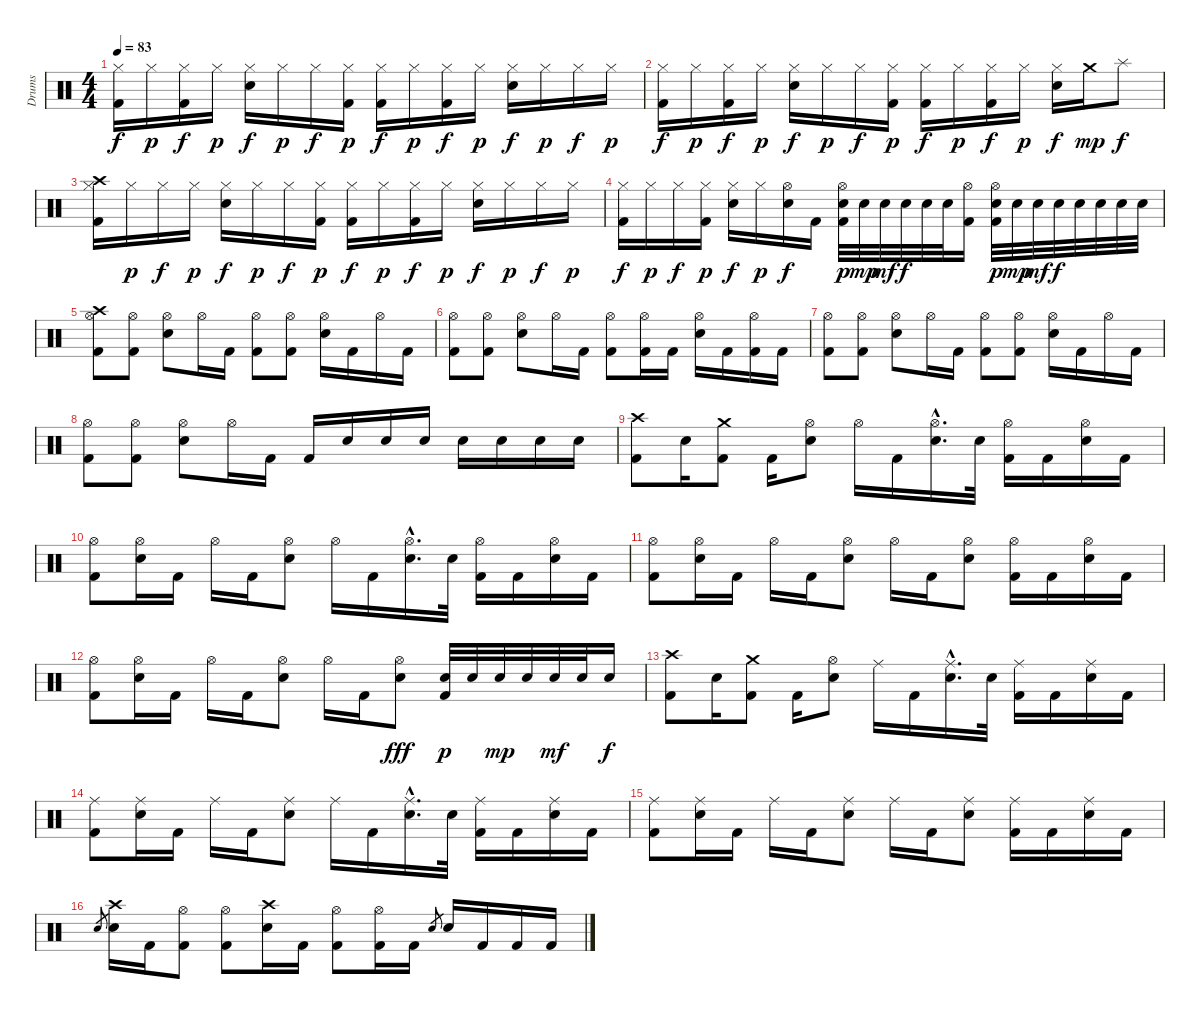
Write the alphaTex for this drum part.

\track ("Drums" "Drums") {instrument percussion}
\staff {score}
\articulation defaults
\ts (4 4)
\tempo 83
\clef neutral
\ks c
("Hi-Hat (closed)" "Kick (hit) 2").16{dy f} "Hi-Hat (closed)".16{dy p} ("Hi-Hat (closed)" "Kick (hit) 2").16{dy f} "Hi-Hat (closed)".16{dy p} ("Hi-Hat (closed)" "Electric Snare (hit)").16{dy f} "Hi-Hat (closed)".16{dy p} "Hi-Hat (closed)".16{dy f} ("Hi-Hat (closed)" "Kick (hit) 2").16{dy p} ("Hi-Hat (closed)" "Kick (hit) 2").16{dy f} "Hi-Hat (closed)".16{dy p} ("Hi-Hat (closed)" "Kick (hit) 2").16{dy f} "Hi-Hat (closed)".16{dy p} ("Hi-Hat (closed)" "Electric Snare (hit)").16{dy f} "Hi-Hat (closed)".16{dy p} "Hi-Hat (closed)".16{dy f} "Hi-Hat (closed)".16{dy p} |
("Hi-Hat (closed)" "Kick (hit) 2").16{dy f} "Hi-Hat (closed)".16{dy p} ("Hi-Hat (closed)" "Kick (hit) 2").16{dy f} "Hi-Hat (closed)".16{dy p} ("Hi-Hat (closed)" "Electric Snare (hit)").16{dy f} "Hi-Hat (closed)".16{dy p} "Hi-Hat (closed)".16{dy f} ("Hi-Hat (closed)" "Kick (hit) 2").16{dy p} ("Hi-Hat (closed)" "Kick (hit) 2").16{dy f} "Hi-Hat (closed)".16{dy p} ("Hi-Hat (closed)" "Kick (hit) 2").16{dy f} "Hi-Hat (closed)".16{dy p} ("Hi-Hat (closed)" "Electric Snare (hit)").16{dy f} "Crash medium (hit)".16{dy mp} "Splash (hit)".8{dy f} |
("Crash high (hit)" "Hi-Hat (closed)" "Kick (hit) 2").16 "Hi-Hat (closed)".16{dy p} "Hi-Hat (closed)".16{dy f} "Hi-Hat (closed)".16{dy p} ("Hi-Hat (closed)" "Electric Snare (hit)").16{dy f} "Hi-Hat (closed)".16{dy p} "Hi-Hat (closed)".16{dy f} ("Hi-Hat (closed)" "Kick (hit) 2").16{dy p} ("Hi-Hat (closed)" "Kick (hit) 2").16{dy f} "Hi-Hat (closed)".16{dy p} ("Hi-Hat (closed)" "Kick (hit) 2").16{dy f} "Hi-Hat (closed)".16{dy p} ("Hi-Hat (closed)" "Electric Snare (hit)").16{dy f} "Hi-Hat (closed)".16{dy p} "Hi-Hat (closed)".16{dy f} "Hi-Hat (closed)".16{dy p} |
("Hi-Hat (closed)" "Kick (hit) 2").16{dy f} "Hi-Hat (closed)".16{dy p} "Hi-Hat (closed)".16{dy f} ("Hi-Hat (closed)" "Kick (hit) 2").16{dy p} ("Hi-Hat (closed)" "Electric Snare (hit)").16{dy f} "Hi-Hat (closed)".16{dy p} ("Hi-Hat (open)" "Electric Snare (hit)").16{dy f} "Kick (hit) 2".16 ("Hi-Hat (open)" "Electric Snare (hit)" "Kick (hit) 2").32{dy p} "Electric Snare (hit)".32{dy mp} "Electric Snare (hit)".32{dy mf} "Electric Snare (hit)".32{dy f} "Electric Snare (hit)".32 "Electric Snare (hit)".32 ("Hi-Hat (open)" "Kick (hit) 2").16 ("Hi-Hat (open)" "Electric Snare (hit)" "Kick (hit) 2").32{dy p} "Electric Snare (hit)".32{dy mp} "Electric Snare (hit)".32{dy mf} "Electric Snare (hit)".32{dy f} "Electric Snare (hit)".32 "Electric Snare (hit)".32 "Electric Snare (hit)".32 "Electric Snare (hit)".32 |
("Crash high (hit)" "Hi-Hat (open)" "Kick (hit) 2").8 ("Hi-Hat (open)" "Kick (hit) 2").8 ("Hi-Hat (open)" "Electric Snare (hit)").8 "Hi-Hat (open)".16 "Kick (hit) 2".16 ("Hi-Hat (open)" "Kick (hit) 2").8 ("Hi-Hat (open)" "Kick (hit) 2").8 ("Hi-Hat (open)" "Electric Snare (hit)").16 "Kick (hit) 2".16 "Hi-Hat (open)".16 "Kick (hit) 2".16 |
("Hi-Hat (open)" "Kick (hit) 2").8 ("Hi-Hat (open)" "Kick (hit) 2").8 ("Hi-Hat (open)" "Electric Snare (hit)").8 "Hi-Hat (open)".16 "Kick (hit) 2".16 ("Hi-Hat (open)" "Kick (hit) 2").8 ("Hi-Hat (open)" "Kick (hit) 2").16 "Kick (hit) 2".16 ("Hi-Hat (open)" "Electric Snare (hit)").16 "Kick (hit) 2".16 ("Hi-Hat (open)" "Kick (hit) 2").16 "Kick (hit) 2".16 |
("Hi-Hat (open)" "Kick (hit) 2").8 ("Hi-Hat (open)" "Kick (hit) 2").8 ("Hi-Hat (open)" "Electric Snare (hit)").8 "Hi-Hat (open)".16 "Kick (hit) 2".16 ("Hi-Hat (open)" "Kick (hit) 2").8 ("Hi-Hat (open)" "Kick (hit) 2").8 ("Hi-Hat (open)" "Electric Snare (hit)").16 "Kick (hit) 2".16 "Hi-Hat (open)".16 "Kick (hit) 2".16 |
("Hi-Hat (open)" "Kick (hit) 2").8 ("Hi-Hat (open)" "Kick (hit) 2").8 ("Hi-Hat (open)" "Electric Snare (hit)").8 "Hi-Hat (open)".16 "Kick (hit) 2".16 "Kick (hit) 2".16 "Electric Snare (hit)".16 "Electric Snare (hit)".16 "Electric Snare (hit)".16 "Electric Snare (hit)".16 "Electric Snare (hit)".16 "Electric Snare (hit)".16 "Electric Snare (hit)".16 |
("Crash high (hit)" "Kick (hit) 2").8 "Electric Snare (hit)".16 ("Crash medium (hit)" "Kick (hit) 2").8 "Kick (hit) 2".16 ("Hi-Hat (open)" "Electric Snare (hit)").8 "Hi-Hat (open)".16 "Kick (hit) 2".16 ("Hi-Hat (open)"{hac} "Electric Snare (hit)"{hac}).16{d} "Electric Snare (hit)".32 ("Hi-Hat (open)" "Kick (hit) 2").16 "Kick (hit) 2".16 ("Hi-Hat (open)" "Electric Snare (hit)").16 "Kick (hit) 2".16 |
("Hi-Hat (open)" "Kick (hit) 2").8 ("Hi-Hat (open)" "Electric Snare (hit)").16 "Kick (hit) 2".16 "Hi-Hat (open)".16 "Kick (hit) 2".16 ("Hi-Hat (open)" "Electric Snare (hit)").8 "Hi-Hat (open)".16 "Kick (hit) 2".16 ("Hi-Hat (open)"{hac} "Electric Snare (hit)"{hac}).16{d} "Electric Snare (hit)".32 ("Hi-Hat (open)" "Kick (hit) 2").16 "Kick (hit) 2".16 ("Hi-Hat (open)" "Electric Snare (hit)").16 "Kick (hit) 2".16 |
("Hi-Hat (open)" "Kick (hit) 2").8 ("Hi-Hat (open)" "Electric Snare (hit)").16 "Kick (hit) 2".16 "Hi-Hat (open)".16 "Kick (hit) 2".16 ("Hi-Hat (open)" "Electric Snare (hit)").8 "Hi-Hat (open)".16 "Kick (hit) 2".16 ("Hi-Hat (open)" "Electric Snare (hit)").8 ("Hi-Hat (open)" "Kick (hit) 2").16 "Kick (hit) 2".16 ("Hi-Hat (open)" "Electric Snare (hit)").16 "Kick (hit) 2".16 |
("Hi-Hat (open)" "Kick (hit) 2").8 ("Hi-Hat (open)" "Electric Snare (hit)").16 "Kick (hit) 2".16 "Hi-Hat (open)".16 "Kick (hit) 2".16 ("Hi-Hat (open)" "Electric Snare (hit)").8 "Hi-Hat (open)".16 "Kick (hit) 2".16 ("Hi-Hat (open)" "Electric Snare (hit)").8{dy fff} ("Electric Snare (hit)" "Kick (hit) 2").32{dy p} "Electric Snare (hit)".32 "Electric Snare (hit)".32{dy mp} "Electric Snare (hit)".32 "Electric Snare (hit)".32{dy mf} "Electric Snare (hit)".32 "Electric Snare (hit)".16{dy f} |
("Crash high (hit)" "Kick (hit) 2").8 "Electric Snare (hit)".16 ("Crash medium (hit)" "Kick (hit) 2").8 "Kick (hit) 2".16 ("Hi-Hat (open)" "Electric Snare (hit)").8 "Ride (middle)".16 "Kick (hit) 2".16 ("Ride (middle)"{hac} "Electric Snare (hit)"{hac}).16{d} "Electric Snare (hit)".32 ("Ride (middle)" "Kick (hit) 2").16 "Kick (hit) 2".16 ("Ride (middle)" "Electric Snare (hit)").16 "Kick (hit) 2".16 |
("Ride (middle)" "Kick (hit) 2").8 ("Ride (middle)" "Electric Snare (hit)").16 "Kick (hit) 2".16 "Ride (middle)".16 "Kick (hit) 2".16 ("Ride (middle)" "Electric Snare (hit)").8 "Ride (middle)".16 "Kick (hit) 2".16 ("Ride (middle)"{hac} "Electric Snare (hit)"{hac}).16{d} "Electric Snare (hit)".32 ("Ride (middle)" "Kick (hit) 2").16 "Kick (hit) 2".16 ("Ride (middle)" "Electric Snare (hit)").16 "Kick (hit) 2".16 |
("Ride (middle)" "Kick (hit) 2").8 ("Ride (middle)" "Electric Snare (hit)").16 "Kick (hit) 2".16 "Ride (middle)".16 "Kick (hit) 2".16 ("Ride (middle)" "Electric Snare (hit)").8 "Ride (middle)".16 "Kick (hit) 2".16 ("Ride (middle)" "Electric Snare (hit)").8 ("Ride (middle)" "Kick (hit) 2").16 "Kick (hit) 2".16 ("Ride (middle)" "Electric Snare (hit)").16 "Kick (hit) 2".16 |
"Electric Snare (hit)".8{gr} ("Crash high (hit)" "Electric Snare (hit)").16 "Kick (hit) 2".16 ("Hi-Hat (open)" "Kick (hit) 2").8 ("Hi-Hat (open)" "Kick (hit) 2").8 ("Crash high (hit)" "Electric Snare (hit)").16 "Kick (hit) 2".16 ("Hi-Hat (open)" "Kick (hit) 2").8 ("Hi-Hat (open)" "Kick (hit) 2").16 "Kick (hit) 2".16 "Electric Snare (hit)".8{gr} "Electric Snare (hit)".16 "Kick (hit) 2".16 "Kick (hit) 2".16 "Kick (hit) 2".16
